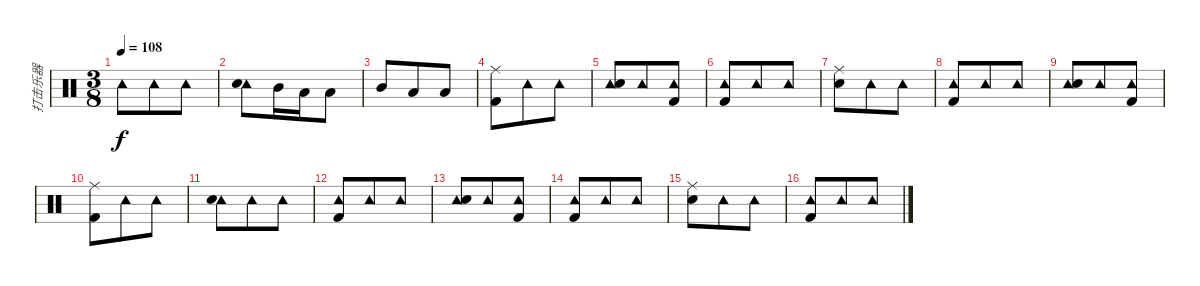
\track ("打击乐器" "打击乐器") {instrument percussion}
\staff {score}
\articulation defaults
\ts (3 8)
\tempo 108
\clef neutral
\ks c "Tambourine (hit)".8{dy f} "Tambourine (hit)".8 "Tambourine (hit)".8
|
("Tambourine (hit)" "Snare (hit) 2").8 "Mid Tom (hit)".16 "Low Tom (hit)".16 "Low Floor Tom (hit)".8 |
"Mid Tom (hit)".8 "Low Tom (hit)".8 "Low Floor Tom (hit)".8 |
("Ride (middle)" "Kick (hit) 2").8 "Tambourine (hit)".8 "Tambourine (hit)".8 |
("Tambourine (hit)" "Snare (hit) 2").8 "Tambourine (hit)".8 ("Tambourine (hit)" "Kick (hit) 2").8 |
("Tambourine (hit)" "Kick (hit) 2").8 "Tambourine (hit)".8 "Tambourine (hit)".8 |
("Ride (middle)" "Snare (hit) 2").8 "Tambourine (hit)".8 "Tambourine (hit)".8 |
("Tambourine (hit)" "Kick (hit) 2").8 "Tambourine (hit)".8 "Tambourine (hit)".8 |
("Tambourine (hit)" "Snare (hit) 2").8 "Tambourine (hit)".8 ("Tambourine (hit)" "Kick (hit) 2").8 |
("Ride (middle)" "Kick (hit) 2").8 "Tambourine (hit)".8 "Tambourine (hit)".8 |
("Tambourine (hit)" "Snare (hit) 2").8 "Tambourine (hit)".8 "Tambourine (hit)".8 |
("Tambourine (hit)" "Kick (hit) 2").8 "Tambourine (hit)".8 "Tambourine (hit)".8 |
("Tambourine (hit)" "Snare (hit) 2").8 "Tambourine (hit)".8 ("Tambourine (hit)" "Kick (hit) 2").8 |
("Tambourine (hit)" "Kick (hit) 2").8 "Tambourine (hit)".8 "Tambourine (hit)".8 |
("Ride (middle)" "Snare (hit) 2").8 "Tambourine (hit)".8 "Tambourine (hit)".8 |
("Tambourine (hit)" "Kick (hit) 2").8 "Tambourine (hit)".8 "Tambourine (hit)".8
